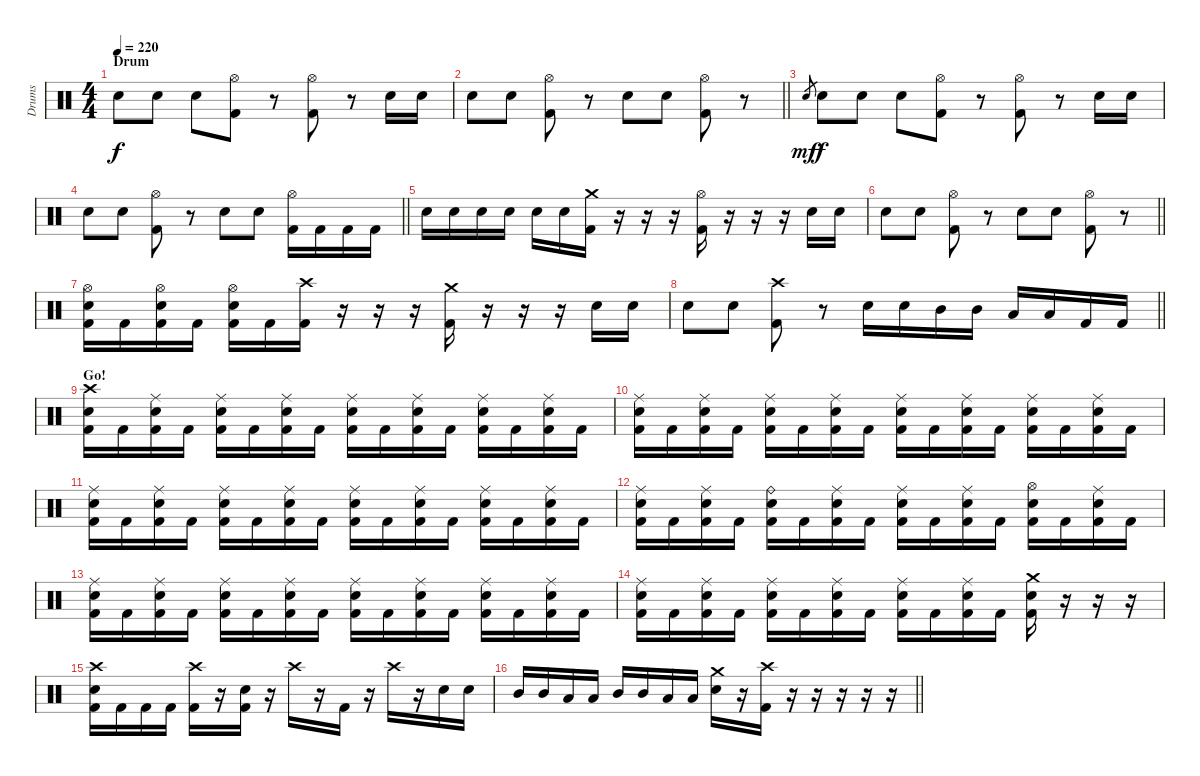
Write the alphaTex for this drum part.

\track ("Drums" "Drums") {instrument percussion}
\staff {score}
\articulation defaults
\ts (4 4)
\section ("" "Drum")
\tempo 220
\clef neutral
\ks c "Electric Snare (hit)".8{dy f} "Electric Snare (hit)".8 "Electric Snare (hit)".8
("Kick (hit) 2" "Hi-Hat (open)").8 r.8 ("Kick (hit) 2" "Hi-Hat (open)").8 r.8 "Electric Snare (hit)".16 "Electric Snare (hit)".16 |
\barLineRight lightlight "Electric Snare (hit)".8 "Electric Snare (hit)".8
("Kick (hit) 2" "Hi-Hat (open)").8 r.8 "Electric Snare (hit)".8 "Electric Snare (hit)".8 ("Kick (hit) 2" "Hi-Hat (open)").8 r.8 |
"Electric Snare (hit)".8{gr dy mf} "Electric Snare (hit)".8{dy f} "Electric Snare (hit)".8 "Electric Snare (hit)".8 ("Kick (hit) 2" "Hi-Hat (open)").8 r.8 ("Kick (hit) 2" "Hi-Hat (open)").8 r.8 "Electric Snare (hit)".16 "Electric Snare (hit)".16 |
\barLineRight lightlight "Electric Snare (hit)".8 "Electric Snare (hit)".8
("Kick (hit) 2" "Hi-Hat (open)").8 r.8 "Electric Snare (hit)".8 "Electric Snare (hit)".8 ("Kick (hit) 2" "Hi-Hat (open)").16 "Kick (hit) 2".16 "Kick (hit) 2".16 "Kick (hit) 2".16 |
"Electric Snare (hit)".16 "Electric Snare (hit)".16 "Electric Snare (hit)".16 "Electric Snare (hit)".16 "Electric Snare (hit)".16 "Electric Snare (hit)".16 ("Kick (hit) 2" "Crash medium (hit)").16 r.16 r.16 r.16 ("Kick (hit) 2" "Hi-Hat (open)").16 r.16 r.16 r.16 "Electric Snare (hit)".16 "Electric Snare (hit)".16 |
\barLineRight lightlight "Electric Snare (hit)".8 "Electric Snare (hit)".8
("Kick (hit) 2" "Hi-Hat (open)").8 r.8 "Electric Snare (hit)".8 "Electric Snare (hit)".8 ("Kick (hit) 2" "Hi-Hat (open)").8 r.8 |
("Electric Snare (hit)" "Kick (hit) 2" "Hi-Hat (open)").16 "Kick (hit) 2".16 ("Electric Snare (hit)" "Kick (hit) 2" "Hi-Hat (open)").16 "Kick (hit) 2".16 ("Electric Snare (hit)" "Kick (hit) 2" "Hi-Hat (open)").16 "Kick (hit) 2".16 ("Kick (hit) 2" "Crash high (hit)").16 r.16 r.16 r.16 ("Kick (hit) 2" "Crash medium (hit)").16 r.16 r.16 r.16 "Electric Snare (hit)".16 "Electric Snare (hit)".16 |
\barLineRight lightlight "Electric Snare (hit)".8 "Electric Snare (hit)".8
("Kick (hit) 2" "Crash high (hit)").8 r.8 "Electric Snare (hit)".16 "Electric Snare (hit)".16 "Mid Tom (hit)".16 "Mid Tom (hit)".16 "Low Tom (hit)".16 "Low Tom (hit)".16 "Kick (hit) 2".16 "Kick (hit) 2".16 |
\section ("" "Go!")
("Electric Snare (hit)" "Kick (hit) 2" "Crash high (hit)").16 "Kick (hit) 2".16 ("Electric Snare (hit)" "Kick (hit) 2" "Ride (middle)").16 "Kick (hit) 2".16 ("Electric Snare (hit)" "Kick (hit) 2" "Ride (middle)").16 "Kick (hit) 2".16 ("Electric Snare (hit)" "Kick (hit) 2" "Ride (middle)").16 "Kick (hit) 2".16 ("Electric Snare (hit)" "Kick (hit) 2" "Ride (middle)").16 "Kick (hit) 2".16 ("Electric Snare (hit)" "Kick (hit) 2" "Ride (middle)").16 "Kick (hit) 2".16 ("Electric Snare (hit)" "Kick (hit) 2" "Ride (middle)").16 "Kick (hit) 2".16 ("Electric Snare (hit)" "Kick (hit) 2" "Ride (middle)").16 "Kick (hit) 2".16 |
("Electric Snare (hit)" "Kick (hit) 2" "Ride (middle)").16 "Kick (hit) 2".16 ("Electric Snare (hit)" "Kick (hit) 2" "Ride (middle)").16 "Kick (hit) 2".16 ("Electric Snare (hit)" "Kick (hit) 2" "Ride (middle)").16 "Kick (hit) 2".16 ("Electric Snare (hit)" "Kick (hit) 2" "Ride (middle)").16 "Kick (hit) 2".16 ("Electric Snare (hit)" "Kick (hit) 2" "Ride (middle)").16 "Kick (hit) 2".16 ("Electric Snare (hit)" "Kick (hit) 2" "Ride (middle)").16 "Kick (hit) 2".16 ("Electric Snare (hit)" "Kick (hit) 2" "Ride (middle)").16 "Kick (hit) 2".16 ("Electric Snare (hit)" "Kick (hit) 2" "Ride (middle)").16 "Kick (hit) 2".16 |
("Electric Snare (hit)" "Kick (hit) 2" "Ride (middle)").16 "Kick (hit) 2".16 ("Electric Snare (hit)" "Kick (hit) 2" "Ride (middle)").16 "Kick (hit) 2".16 ("Electric Snare (hit)" "Kick (hit) 2" "Ride (middle)").16 "Kick (hit) 2".16 ("Electric Snare (hit)" "Kick (hit) 2" "Ride (middle)").16 "Kick (hit) 2".16 ("Electric Snare (hit)" "Kick (hit) 2" "Ride (middle)").16 "Kick (hit) 2".16 ("Electric Snare (hit)" "Kick (hit) 2" "Ride (middle)").16 "Kick (hit) 2".16 ("Electric Snare (hit)" "Kick (hit) 2" "Ride (middle)").16 "Kick (hit) 2".16 ("Electric Snare (hit)" "Kick (hit) 2" "Ride (middle)").16 "Kick (hit) 2".16 |
("Electric Snare (hit)" "Kick (hit) 2" "Ride (middle)").16 "Kick (hit) 2".16 ("Electric Snare (hit)" "Kick (hit) 2" "Ride (middle)").16 "Kick (hit) 2".16 ("Electric Snare (hit)" "Kick (hit) 2" "Ride (bell)").16 "Kick (hit) 2".16 ("Electric Snare (hit)" "Kick (hit) 2" "Ride (middle)").16 "Kick (hit) 2".16 ("Electric Snare (hit)" "Kick (hit) 2" "Ride (middle)").16 "Kick (hit) 2".16 ("Electric Snare (hit)" "Kick (hit) 2" "Ride (middle)").16 "Kick (hit) 2".16 ("Electric Snare (hit)" "Kick (hit) 2" "Hi-Hat (open)").16 "Kick (hit) 2".16 ("Electric Snare (hit)" "Kick (hit) 2" "Ride (middle)").16 "Kick (hit) 2".16 |
("Electric Snare (hit)" "Kick (hit) 2" "Ride (middle)").16 "Kick (hit) 2".16 ("Electric Snare (hit)" "Kick (hit) 2" "Ride (middle)").16 "Kick (hit) 2".16 ("Electric Snare (hit)" "Kick (hit) 2" "Ride (middle)").16 "Kick (hit) 2".16 ("Electric Snare (hit)" "Kick (hit) 2" "Ride (middle)").16 "Kick (hit) 2".16 ("Electric Snare (hit)" "Kick (hit) 2" "Ride (middle)").16 "Kick (hit) 2".16 ("Electric Snare (hit)" "Kick (hit) 2" "Ride (middle)").16 "Kick (hit) 2".16 ("Electric Snare (hit)" "Kick (hit) 2" "Ride (middle)").16 "Kick (hit) 2".16 ("Electric Snare (hit)" "Kick (hit) 2" "Ride (middle)").16 "Kick (hit) 2".16 |
("Electric Snare (hit)" "Kick (hit) 2" "Ride (middle)").16 "Kick (hit) 2".16 ("Electric Snare (hit)" "Kick (hit) 2" "Ride (middle)").16 "Kick (hit) 2".16 ("Electric Snare (hit)" "Kick (hit) 2" "Ride (middle)").16 "Kick (hit) 2".16 ("Electric Snare (hit)" "Kick (hit) 2" "Ride (middle)").16 "Kick (hit) 2".16 ("Electric Snare (hit)" "Kick (hit) 2" "Ride (middle)").16 "Kick (hit) 2".16 ("Electric Snare (hit)" "Kick (hit) 2" "Ride (middle)").16 "Kick (hit) 2".16 ("Electric Snare (hit)" "Kick (hit) 2" "Crash medium (hit)").16 r.16 r.16 r.16 |
("Kick (hit) 2" "Electric Snare (hit)" "Crash high (hit)").16 "Kick (hit) 2".16 "Kick (hit) 2".16 "Kick (hit) 2".16 ("Kick (hit) 2" "Crash high (hit)").16 r.16 ("Kick (hit) 2" "Electric Snare (hit)").16 r.16 "Crash high (hit)".16 r.16 "Kick (hit) 2".16 r.16 "Crash high (hit)".16 r.16 "Electric Snare (hit)".16 "Electric Snare (hit)".16 |
\barLineRight lightlight "Mid Tom (hit)".16 "Mid Tom (hit)".16 "Low Tom (hit)".16 "Low Tom (hit)".16 "Mid Tom (hit)".16 "Mid Tom (hit)".16 "Low Tom (hit)".16 "Low Tom (hit)".16
("Electric Snare (hit)" "Crash medium (hit)").16 r.16 ("Kick (hit) 2" "Crash high (hit)").16 r.16 r.16 r.16 r.16 r.16
